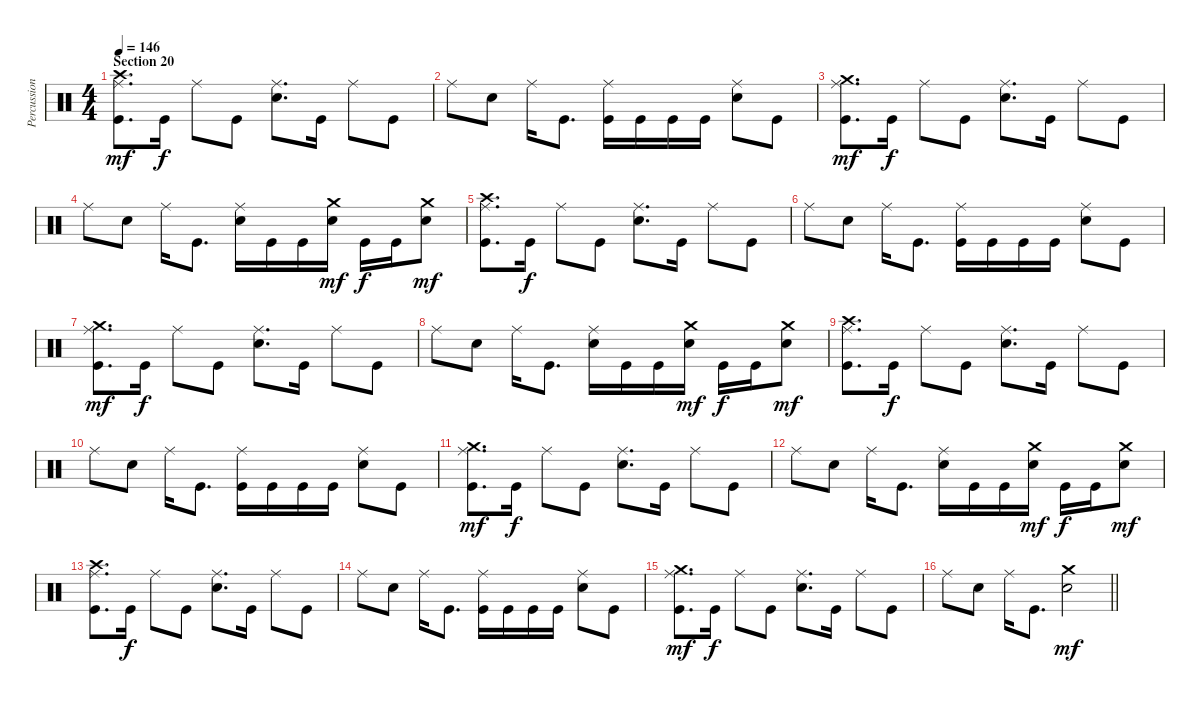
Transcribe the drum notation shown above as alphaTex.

\track ("Percussion" "Percussion") {instrument percussion}
\staff {score}
\articulation defaults
\ts (4 4)
\section ("" "Section 20")
\tempo 146
\clef neutral
\ks c
("Crash high (hit)" "Ride (middle)" "Kick (hit)").8{d dy mf} "Kick (hit)".16{dy f} "Ride (middle)".8 "Kick (hit)".8 ("Ride (middle)" "Electric Snare (hit)").8{d} "Kick (hit)".16 "Ride (middle)".8 "Kick (hit)".8 |
"Ride (middle)".8 "Electric Snare (hit)".8 "Ride (middle)".16 "Kick (hit)".8{d} ("Ride (middle)" "Kick (hit)").16 "Kick (hit)".16 "Kick (hit)".16 "Kick (hit)".16 ("Ride (middle)" "Electric Snare (hit)").8 "Kick (hit)".8 |
("Crash medium (hit)" "Ride (middle)" "Kick (hit)").8{d dy mf} "Kick (hit)".16{dy f} "Ride (middle)".8 "Kick (hit)".8 ("Ride (middle)" "Electric Snare (hit)").8{d} "Kick (hit)".16 "Ride (middle)".8 "Kick (hit)".8 |
"Ride (middle)".8 "Electric Snare (hit)".8 "Ride (middle)".16 "Kick (hit)".8{d} ("Ride (middle)" "Electric Snare (hit)").16 "Kick (hit)".16 "Kick (hit)".16 ("Crash medium (hit)" "Electric Snare (hit)").16{dy mf} "Kick (hit)".16{dy f} "Kick (hit)".16 ("Crash medium (hit)" "Electric Snare (hit)").8{dy mf} |
("Crash high (hit)" "Ride (middle)" "Kick (hit)").8{d} "Kick (hit)".16{dy f} "Ride (middle)".8 "Kick (hit)".8 ("Ride (middle)" "Electric Snare (hit)").8{d} "Kick (hit)".16 "Ride (middle)".8 "Kick (hit)".8 |
"Ride (middle)".8 "Electric Snare (hit)".8 "Ride (middle)".16 "Kick (hit)".8{d} ("Ride (middle)" "Kick (hit)").16 "Kick (hit)".16 "Kick (hit)".16 "Kick (hit)".16 ("Ride (middle)" "Electric Snare (hit)").8 "Kick (hit)".8 |
("Crash medium (hit)" "Ride (middle)" "Kick (hit)").8{d dy mf} "Kick (hit)".16{dy f} "Ride (middle)".8 "Kick (hit)".8 ("Ride (middle)" "Electric Snare (hit)").8{d} "Kick (hit)".16 "Ride (middle)".8 "Kick (hit)".8 |
"Ride (middle)".8 "Electric Snare (hit)".8 "Ride (middle)".16 "Kick (hit)".8{d} ("Ride (middle)" "Electric Snare (hit)").16 "Kick (hit)".16 "Kick (hit)".16 ("Crash medium (hit)" "Electric Snare (hit)").16{dy mf} "Kick (hit)".16{dy f} "Kick (hit)".16 ("Crash medium (hit)" "Electric Snare (hit)").8{dy mf} |
("Crash high (hit)" "Ride (middle)" "Kick (hit)").8{d} "Kick (hit)".16{dy f} "Ride (middle)".8 "Kick (hit)".8 ("Ride (middle)" "Electric Snare (hit)").8{d} "Kick (hit)".16 "Ride (middle)".8 "Kick (hit)".8 |
"Ride (middle)".8 "Electric Snare (hit)".8 "Ride (middle)".16 "Kick (hit)".8{d} ("Ride (middle)" "Kick (hit)").16 "Kick (hit)".16 "Kick (hit)".16 "Kick (hit)".16 ("Ride (middle)" "Electric Snare (hit)").8 "Kick (hit)".8 |
("Crash medium (hit)" "Ride (middle)" "Kick (hit)").8{d dy mf} "Kick (hit)".16{dy f} "Ride (middle)".8 "Kick (hit)".8 ("Ride (middle)" "Electric Snare (hit)").8{d} "Kick (hit)".16 "Ride (middle)".8 "Kick (hit)".8 |
"Ride (middle)".8 "Electric Snare (hit)".8 "Ride (middle)".16 "Kick (hit)".8{d} ("Ride (middle)" "Electric Snare (hit)").16 "Kick (hit)".16 "Kick (hit)".16 ("Crash medium (hit)" "Electric Snare (hit)").16{dy mf} "Kick (hit)".16{dy f} "Kick (hit)".16 ("Crash medium (hit)" "Electric Snare (hit)").8{dy mf} |
("Crash high (hit)" "Ride (middle)" "Kick (hit)").8{d} "Kick (hit)".16{dy f} "Ride (middle)".8 "Kick (hit)".8 ("Ride (middle)" "Electric Snare (hit)").8{d} "Kick (hit)".16 "Ride (middle)".8 "Kick (hit)".8 |
"Ride (middle)".8 "Electric Snare (hit)".8 "Ride (middle)".16 "Kick (hit)".8{d} ("Ride (middle)" "Kick (hit)").16 "Kick (hit)".16 "Kick (hit)".16 "Kick (hit)".16 ("Ride (middle)" "Electric Snare (hit)").8 "Kick (hit)".8 |
("Crash medium (hit)" "Ride (middle)" "Kick (hit)").8{d dy mf} "Kick (hit)".16{dy f} "Ride (middle)".8 "Kick (hit)".8 ("Ride (middle)" "Electric Snare (hit)").8{d} "Kick (hit)".16 "Ride (middle)".8 "Kick (hit)".8 |
\barLineRight lightlight "Ride (middle)".8 "Electric Snare (hit)".8 "Ride (middle)".16 "Kick (hit)".8{d}
("Crash medium (hit)" "Electric Snare (hit)").2{dy mf}
